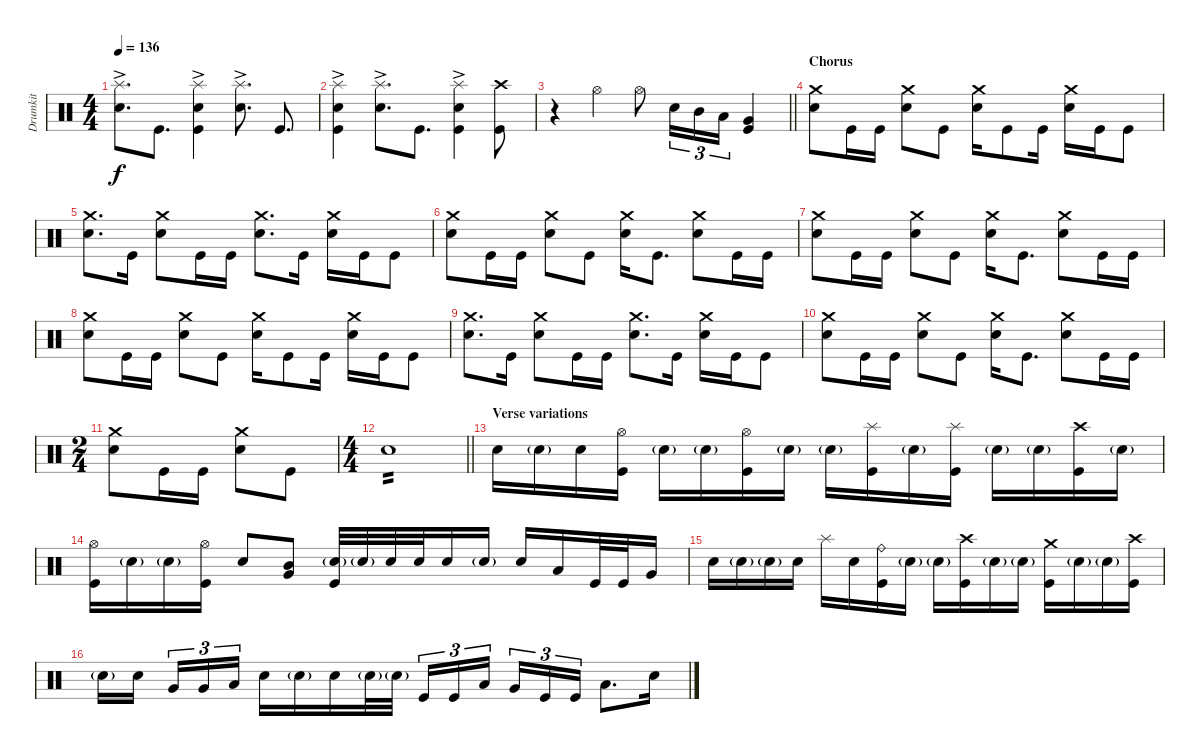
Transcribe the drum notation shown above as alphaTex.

\track ("Drumkit" "Drumkit") {instrument percussion}
\staff {score}
\articulation defaults
\ts (4 4)
\tempo 136
\clef neutral
\ks c
("Splash (hit)" "Snare (hit) 2"{ac}).8{d dy f} "Kick (hit)".8{d} ("Snare (hit) 2"{ac} "Kick (hit)" "Splash (hit)").4 ("Splash (hit)" "Snare (hit) 2"{ac}).8{d} "Kick (hit)".8{d} |
("Snare (hit) 2"{ac} "Kick (hit)" "Splash (hit)").4 ("Splash (hit)" "Snare (hit) 2"{ac}).8{d} "Kick (hit)".8{d} ("Snare (hit) 2"{ac} "Kick (hit)" "Splash (hit)").4 ("Crash high (hit)" "Kick (hit)").8 |
\barLineRight lightlight
r.4 "Hi-Hat (open)".4 "Hi-Hat (open)".8 "Snare (hit) 2".16{tu (3 2)} "Mid Tom (hit)".16{tu (3 2)} "Low Tom (hit)".16{tu (3 2)} ("Very Low Tom (hit)" "Kick (hit)").4 |
\section ("" "Chorus")
("Crash medium (hit)" "Snare (hit) 2").8 "Kick (hit)".16 "Kick (hit)".16 ("Crash medium (hit)" "Snare (hit) 2").8 "Kick (hit)".8 ("Crash medium (hit)" "Snare (hit) 2").16 "Kick (hit)".8 "Kick (hit)".16 ("Crash medium (hit)" "Snare (hit) 2").16 "Kick (hit)".16 "Kick (hit)".8 |
("Snare (hit) 2" "Crash medium (hit)").8{d} "Kick (hit)".16 ("Snare (hit) 2" "Crash medium (hit)").8 "Kick (hit)".16 "Kick (hit)".16 ("Snare (hit) 2" "Crash medium (hit)").8{d} "Kick (hit)".16 ("Snare (hit) 2" "Crash medium (hit)").16 "Kick (hit)".16 "Kick (hit)".8 |
("Crash medium (hit)" "Snare (hit) 2").8 "Kick (hit)".16 "Kick (hit)".16 ("Crash medium (hit)" "Snare (hit) 2").8 "Kick (hit)".8 ("Crash medium (hit)" "Snare (hit) 2").16 "Kick (hit)".8{d} ("Crash medium (hit)" "Snare (hit) 2").8 "Kick (hit)".16 "Kick (hit)".16 |
("Crash medium (hit)" "Snare (hit) 2").8 "Kick (hit)".16 "Kick (hit)".16 ("Crash medium (hit)" "Snare (hit) 2").8 "Kick (hit)".8 ("Crash medium (hit)" "Snare (hit) 2").16 "Kick (hit)".8{d} ("Crash medium (hit)" "Snare (hit) 2").8 "Kick (hit)".16 "Kick (hit)".16 |
("Crash medium (hit)" "Snare (hit) 2").8 "Kick (hit)".16 "Kick (hit)".16 ("Crash medium (hit)" "Snare (hit) 2").8 "Kick (hit)".8 ("Crash medium (hit)" "Snare (hit) 2").16 "Kick (hit)".8 "Kick (hit)".16 ("Crash medium (hit)" "Snare (hit) 2").16 "Kick (hit)".16 "Kick (hit)".8 |
("Snare (hit) 2" "Crash medium (hit)").8{d} "Kick (hit)".16 ("Snare (hit) 2" "Crash medium (hit)").8 "Kick (hit)".16 "Kick (hit)".16 ("Snare (hit) 2" "Crash medium (hit)").8{d} "Kick (hit)".16 ("Snare (hit) 2" "Crash medium (hit)").16 "Kick (hit)".16 "Kick (hit)".8 |
("Crash medium (hit)" "Snare (hit) 2").8 "Kick (hit)".16 "Kick (hit)".16 ("Crash medium (hit)" "Snare (hit) 2").8 "Kick (hit)".8 ("Crash medium (hit)" "Snare (hit) 2").16 "Kick (hit)".8{d} ("Crash medium (hit)" "Snare (hit) 2").8 "Kick (hit)".16 "Kick (hit)".16 |
\ts (2 4)
("Crash medium (hit)" "Snare (hit) 2").8 "Kick (hit)".16 "Kick (hit)".16 ("Crash medium (hit)" "Snare (hit) 2").8 "Kick (hit)".8 |
\ts (4 4)
\barLineRight lightlight "Snare (hit) 2".1{tp 2}
|
\section ("" "Verse variations")
"Snare (hit) 2".16 "Snare (hit) 2"{g}.16 "Snare (hit) 2".16 ("Kick (hit)" "Hi-Hat (open)").16 "Snare (hit) 2"{g}.16 "Snare (hit) 2"{g}.16 ("Kick (hit)" "Hi-Hat (open)").16 "Snare (hit) 2"{g}.16 "Snare (hit) 2"{g}.16 ("Kick (hit)" "Splash (hit)").16 "Snare (hit) 2"{g}.16 ("Kick (hit)" "Splash (hit)").16 "Snare (hit) 2"{g}.16 "Snare (hit) 2"{g}.16 ("Kick (hit)" "Crash high (hit)").16 "Snare (hit) 2"{g}.16 |
("Kick (hit)" "Hi-Hat (open)").16 "Snare (hit) 2"{g}.16 "Snare (hit) 2"{g}.16 ("Kick (hit)" "Hi-Hat (open)").16 "Snare (hit) 2".8 ("Very Low Tom (hit)" "Mid Tom (hit)").8 ("Kick (hit)" "Snare (hit) 2"{g}).32 "Snare (hit) 2"{g}.32 "Snare (hit) 2".32 "Snare (hit) 2".32 "Snare (hit) 2".16 "Snare (hit) 2"{g}.16 "Snare (hit) 2".16 "Low Tom (hit)".16 "Kick (hit)".32 "Kick (hit)".32 "Very Low Tom (hit)".16 |
"Snare (hit) 2".16 "Snare (hit) 2"{g}.16 "Snare (hit) 2"{g}.16 "Snare (hit) 2".16 "Splash (hit)".16 "Snare (hit) 2".16 ("Kick (hit)" "Ride (bell)").16 "Snare (hit) 2"{g}.16 "Snare (hit) 2"{g}.16 ("Kick (hit)" "Crash high (hit)").16 "Snare (hit) 2"{g}.16 "Snare (hit) 2"{g}.16 ("Kick (hit)" "Crash medium (hit)").16 "Snare (hit) 2"{g}.16 "Snare (hit) 2"{g}.16 ("Kick (hit)" "Crash high (hit)").16 |
"Snare (hit) 2"{g}.16 "Snare (hit) 2".16{beam splitsecondary} "Very Low Tom (hit)".16{tu (3 2)} "Very Low Tom (hit)".16{tu (3 2)} "Low Tom (hit)".16{tu (3 2)} "Snare (hit) 2".16 "Snare (hit) 2"{g}.16 "Snare (hit) 2".16 "Snare (hit) 2"{g}.32 "Snare (hit) 2"{g}.32 "Kick (hit)".16{tu (3 2)} "Kick (hit)".16{tu (3 2)} "Low Tom (hit)".16{tu (3 2) beam splitsecondary} "Very Low Tom (hit)".16{tu (3 2)} "Kick (hit)".16{tu (3 2)} "Kick (hit)".16{tu (3 2)} "Low Floor Tom (hit)".8{d} "Snare (hit) 2".16
